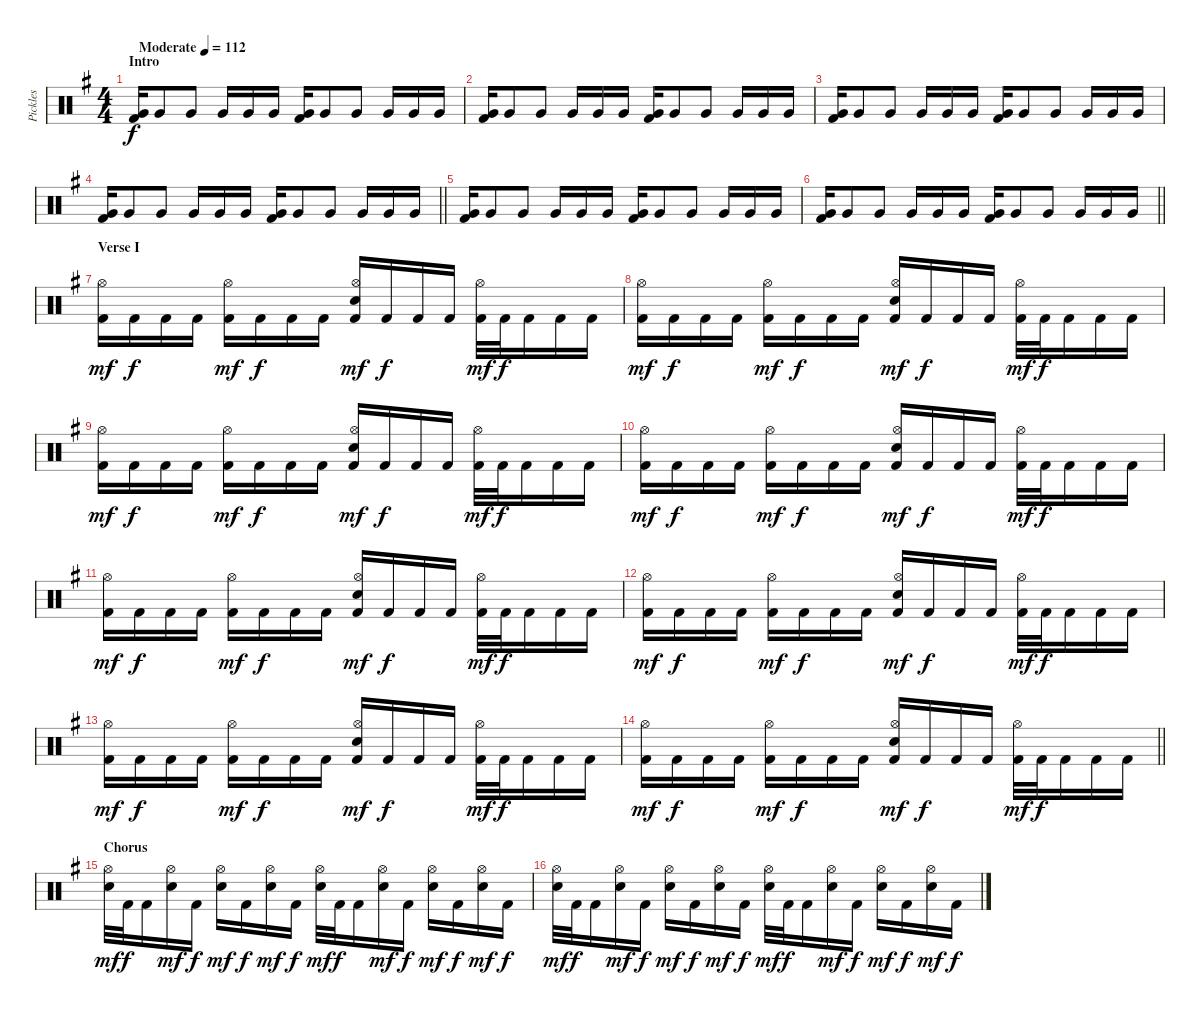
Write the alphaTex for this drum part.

\track ("Pickles" "Pickles") {instrument percussion}
\staff {score}
\articulation defaults
\ts (4 4)
\section ("" "Intro")
\tempo (112 "Moderate")
\clef neutral
\ks eminor
("Very Low Tom (hit)" "Kick (hit) 2").16{dy f} "Very Low Tom (hit)".8 "Very Low Tom (hit)".8 "Very Low Tom (hit)".16 "Very Low Tom (hit)".16 "Very Low Tom (hit)".16 ("Very Low Tom (hit)" "Kick (hit) 2").16 "Very Low Tom (hit)".8 "Very Low Tom (hit)".8 "Very Low Tom (hit)".16 "Very Low Tom (hit)".16 "Very Low Tom (hit)".16 |
("Very Low Tom (hit)" "Kick (hit) 2").16 "Very Low Tom (hit)".8 "Very Low Tom (hit)".8 "Very Low Tom (hit)".16 "Very Low Tom (hit)".16 "Very Low Tom (hit)".16 ("Very Low Tom (hit)" "Kick (hit) 2").16 "Very Low Tom (hit)".8 "Very Low Tom (hit)".8 "Very Low Tom (hit)".16 "Very Low Tom (hit)".16 "Very Low Tom (hit)".16 |
("Very Low Tom (hit)" "Kick (hit) 2").16 "Very Low Tom (hit)".8 "Very Low Tom (hit)".8 "Very Low Tom (hit)".16 "Very Low Tom (hit)".16 "Very Low Tom (hit)".16 ("Very Low Tom (hit)" "Kick (hit) 2").16 "Very Low Tom (hit)".8 "Very Low Tom (hit)".8 "Very Low Tom (hit)".16 "Very Low Tom (hit)".16 "Very Low Tom (hit)".16 |
\barLineRight lightlight
("Very Low Tom (hit)" "Kick (hit) 2").16 "Very Low Tom (hit)".8 "Very Low Tom (hit)".8 "Very Low Tom (hit)".16 "Very Low Tom (hit)".16 "Very Low Tom (hit)".16 ("Very Low Tom (hit)" "Kick (hit) 2").16 "Very Low Tom (hit)".8 "Very Low Tom (hit)".8 "Very Low Tom (hit)".16 "Very Low Tom (hit)".16 "Very Low Tom (hit)".16 |
\section ("" "")
("Very Low Tom (hit)" "Kick (hit) 2").16 "Very Low Tom (hit)".8 "Very Low Tom (hit)".8 "Very Low Tom (hit)".16 "Very Low Tom (hit)".16 "Very Low Tom (hit)".16 ("Very Low Tom (hit)" "Kick (hit) 2").16 "Very Low Tom (hit)".8 "Very Low Tom (hit)".8 "Very Low Tom (hit)".16 "Very Low Tom (hit)".16 "Very Low Tom (hit)".16 |
\barLineRight lightlight
("Very Low Tom (hit)" "Kick (hit) 2").16 "Very Low Tom (hit)".8 "Very Low Tom (hit)".8 "Very Low Tom (hit)".16 "Very Low Tom (hit)".16 "Very Low Tom (hit)".16 ("Very Low Tom (hit)" "Kick (hit) 2").16 "Very Low Tom (hit)".8 "Very Low Tom (hit)".8 "Very Low Tom (hit)".16 "Very Low Tom (hit)".16 "Very Low Tom (hit)".16 |
\section ("" "Verse I")
("Hi-Hat (open)" "Kick (hit) 2").16{dy mf} "Kick (hit) 2".16{dy f} "Kick (hit) 2".16 "Kick (hit) 2".16 ("Hi-Hat (open)" "Kick (hit) 2").16{dy mf} "Kick (hit) 2".16{dy f} "Kick (hit) 2".16 "Kick (hit) 2".16 ("Hi-Hat (open)" "Snare (hit) 2" "Kick (hit) 2").16{dy mf} "Kick (hit) 2".16{dy f} "Kick (hit) 2".16 "Kick (hit) 2".16 ("Hi-Hat (open)" "Kick (hit) 2").32{dy mf} "Kick (hit) 2".32{dy f} "Kick (hit) 2".16 "Kick (hit) 2".16 "Kick (hit) 2".16 |
("Hi-Hat (open)" "Kick (hit) 2").16{dy mf} "Kick (hit) 2".16{dy f} "Kick (hit) 2".16 "Kick (hit) 2".16 ("Hi-Hat (open)" "Kick (hit) 2").16{dy mf} "Kick (hit) 2".16{dy f} "Kick (hit) 2".16 "Kick (hit) 2".16 ("Hi-Hat (open)" "Snare (hit) 2" "Kick (hit) 2").16{dy mf} "Kick (hit) 2".16{dy f} "Kick (hit) 2".16 "Kick (hit) 2".16 ("Hi-Hat (open)" "Kick (hit) 2").32{dy mf} "Kick (hit) 2".32{dy f} "Kick (hit) 2".16 "Kick (hit) 2".16 "Kick (hit) 2".16 |
("Hi-Hat (open)" "Kick (hit) 2").16{dy mf} "Kick (hit) 2".16{dy f} "Kick (hit) 2".16 "Kick (hit) 2".16 ("Hi-Hat (open)" "Kick (hit) 2").16{dy mf} "Kick (hit) 2".16{dy f} "Kick (hit) 2".16 "Kick (hit) 2".16 ("Hi-Hat (open)" "Snare (hit) 2" "Kick (hit) 2").16{dy mf} "Kick (hit) 2".16{dy f} "Kick (hit) 2".16 "Kick (hit) 2".16 ("Hi-Hat (open)" "Kick (hit) 2").32{dy mf} "Kick (hit) 2".32{dy f} "Kick (hit) 2".16 "Kick (hit) 2".16 "Kick (hit) 2".16 |
("Hi-Hat (open)" "Kick (hit) 2").16{dy mf} "Kick (hit) 2".16{dy f} "Kick (hit) 2".16 "Kick (hit) 2".16 ("Hi-Hat (open)" "Kick (hit) 2").16{dy mf} "Kick (hit) 2".16{dy f} "Kick (hit) 2".16 "Kick (hit) 2".16 ("Hi-Hat (open)" "Snare (hit) 2" "Kick (hit) 2").16{dy mf} "Kick (hit) 2".16{dy f} "Kick (hit) 2".16 "Kick (hit) 2".16 ("Hi-Hat (open)" "Kick (hit) 2").32{dy mf} "Kick (hit) 2".32{dy f} "Kick (hit) 2".16 "Kick (hit) 2".16 "Kick (hit) 2".16 |
("Hi-Hat (open)" "Kick (hit) 2").16{dy mf} "Kick (hit) 2".16{dy f} "Kick (hit) 2".16 "Kick (hit) 2".16 ("Hi-Hat (open)" "Kick (hit) 2").16{dy mf} "Kick (hit) 2".16{dy f} "Kick (hit) 2".16 "Kick (hit) 2".16 ("Hi-Hat (open)" "Snare (hit) 2" "Kick (hit) 2").16{dy mf} "Kick (hit) 2".16{dy f} "Kick (hit) 2".16 "Kick (hit) 2".16 ("Hi-Hat (open)" "Kick (hit) 2").32{dy mf} "Kick (hit) 2".32{dy f} "Kick (hit) 2".16 "Kick (hit) 2".16 "Kick (hit) 2".16 |
("Hi-Hat (open)" "Kick (hit) 2").16{dy mf} "Kick (hit) 2".16{dy f} "Kick (hit) 2".16 "Kick (hit) 2".16 ("Hi-Hat (open)" "Kick (hit) 2").16{dy mf} "Kick (hit) 2".16{dy f} "Kick (hit) 2".16 "Kick (hit) 2".16 ("Hi-Hat (open)" "Snare (hit) 2" "Kick (hit) 2").16{dy mf} "Kick (hit) 2".16{dy f} "Kick (hit) 2".16 "Kick (hit) 2".16 ("Hi-Hat (open)" "Kick (hit) 2").32{dy mf} "Kick (hit) 2".32{dy f} "Kick (hit) 2".16 "Kick (hit) 2".16 "Kick (hit) 2".16 |
("Hi-Hat (open)" "Kick (hit) 2").16{dy mf} "Kick (hit) 2".16{dy f} "Kick (hit) 2".16 "Kick (hit) 2".16 ("Hi-Hat (open)" "Kick (hit) 2").16{dy mf} "Kick (hit) 2".16{dy f} "Kick (hit) 2".16 "Kick (hit) 2".16 ("Hi-Hat (open)" "Snare (hit) 2" "Kick (hit) 2").16{dy mf} "Kick (hit) 2".16{dy f} "Kick (hit) 2".16 "Kick (hit) 2".16 ("Hi-Hat (open)" "Kick (hit) 2").32{dy mf} "Kick (hit) 2".32{dy f} "Kick (hit) 2".16 "Kick (hit) 2".16 "Kick (hit) 2".16 |
\barLineRight lightlight
("Hi-Hat (open)" "Kick (hit) 2").16{dy mf} "Kick (hit) 2".16{dy f} "Kick (hit) 2".16 "Kick (hit) 2".16 ("Hi-Hat (open)" "Kick (hit) 2").16{dy mf} "Kick (hit) 2".16{dy f} "Kick (hit) 2".16 "Kick (hit) 2".16 ("Hi-Hat (open)" "Snare (hit) 2" "Kick (hit) 2").16{dy mf} "Kick (hit) 2".16{dy f} "Kick (hit) 2".16 "Kick (hit) 2".16 ("Hi-Hat (open)" "Kick (hit) 2").32{dy mf} "Kick (hit) 2".32{dy f} "Kick (hit) 2".16 "Kick (hit) 2".16 "Kick (hit) 2".16 |
\section ("" "Chorus")
("Hi-Hat (open)" "Snare (hit) 2").32{dy mf} "Kick (hit) 2".32{dy f} "Kick (hit) 2".16 ("Hi-Hat (open)" "Snare (hit) 2").16{dy mf} "Kick (hit) 2".16{dy f} ("Hi-Hat (open)" "Snare (hit) 2").16{dy mf} "Kick (hit) 2".16{dy f} ("Hi-Hat (open)" "Snare (hit) 2").16{dy mf} "Kick (hit) 2".16{dy f} ("Hi-Hat (open)" "Snare (hit) 2").32{dy mf} "Kick (hit) 2".32{dy f} "Kick (hit) 2".16 ("Hi-Hat (open)" "Snare (hit) 2").16{dy mf} "Kick (hit) 2".16{dy f} ("Hi-Hat (open)" "Snare (hit) 2").16{dy mf} "Kick (hit) 2".16{dy f} ("Hi-Hat (open)" "Snare (hit) 2").16{dy mf} "Kick (hit) 2".16{dy f} |
("Hi-Hat (open)" "Snare (hit) 2").32{dy mf} "Kick (hit) 2".32{dy f} "Kick (hit) 2".16 ("Hi-Hat (open)" "Snare (hit) 2").16{dy mf} "Kick (hit) 2".16{dy f} ("Hi-Hat (open)" "Snare (hit) 2").16{dy mf} "Kick (hit) 2".16{dy f} ("Hi-Hat (open)" "Snare (hit) 2").16{dy mf} "Kick (hit) 2".16{dy f} ("Hi-Hat (open)" "Snare (hit) 2").32{dy mf} "Kick (hit) 2".32{dy f} "Kick (hit) 2".16 ("Hi-Hat (open)" "Snare (hit) 2").16{dy mf} "Kick (hit) 2".16{dy f} ("Hi-Hat (open)" "Snare (hit) 2").16{dy mf} "Kick (hit) 2".16{dy f} ("Hi-Hat (open)" "Snare (hit) 2").16{dy mf} "Kick (hit) 2".16{dy f}
